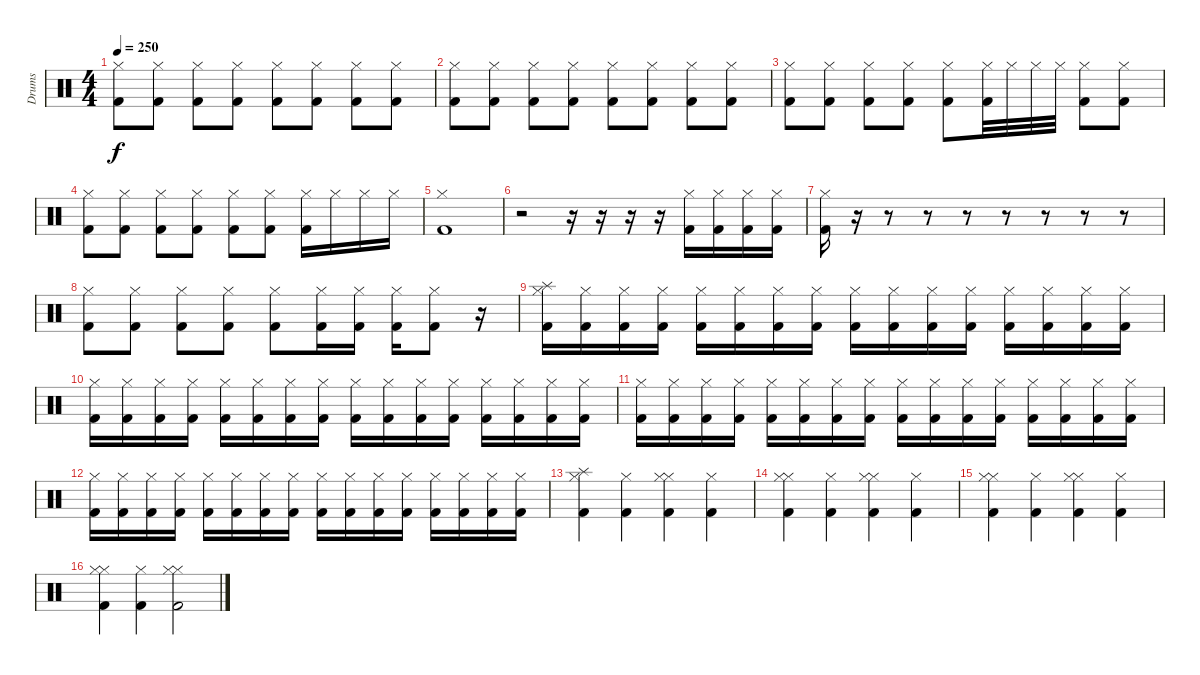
\track ("Drums" "Drums") {instrument percussion}
\staff {score}
\articulation defaults
\ts (4 4)
\tempo 250
\clef neutral
\ks c
("Kick (hit) 2" "Hi-Hat (closed)").8{dy f} ("Kick (hit) 2" "Hi-Hat (closed)").8 ("Kick (hit) 2" "Hi-Hat (closed)").8 ("Kick (hit) 2" "Hi-Hat (closed)").8 ("Kick (hit) 2" "Hi-Hat (closed)").8 ("Kick (hit) 2" "Hi-Hat (closed)").8 ("Kick (hit) 2" "Hi-Hat (closed)").8 ("Kick (hit) 2" "Hi-Hat (closed)").8 |
("Kick (hit) 2" "Hi-Hat (closed)").8 ("Kick (hit) 2" "Hi-Hat (closed)").8 ("Kick (hit) 2" "Hi-Hat (closed)").8 ("Kick (hit) 2" "Hi-Hat (closed)").8 ("Kick (hit) 2" "Hi-Hat (closed)").8 ("Kick (hit) 2" "Hi-Hat (closed)").8 ("Kick (hit) 2" "Hi-Hat (closed)").8 ("Kick (hit) 2" "Hi-Hat (closed)").8 |
("Kick (hit) 2" "Hi-Hat (closed)").8 ("Kick (hit) 2" "Hi-Hat (closed)").8 ("Kick (hit) 2" "Hi-Hat (closed)").8 ("Kick (hit) 2" "Hi-Hat (closed)").8 ("Kick (hit) 2" "Hi-Hat (closed)").8 ("Kick (hit) 2" "Hi-Hat (closed)").32 "Hi-Hat (closed)".32 "Hi-Hat (closed)".32 "Hi-Hat (closed)".32 ("Kick (hit) 2" "Hi-Hat (closed)").8 ("Kick (hit) 2" "Hi-Hat (closed)").8 |
("Kick (hit) 2" "Hi-Hat (closed)").8 ("Kick (hit) 2" "Hi-Hat (closed)").8 ("Kick (hit) 2" "Hi-Hat (closed)").8 ("Kick (hit) 2" "Hi-Hat (closed)").8 ("Kick (hit) 2" "Hi-Hat (closed)").8 ("Kick (hit) 2" "Hi-Hat (closed)").8 ("Kick (hit) 2" "Hi-Hat (closed)").16 "Hi-Hat (closed)".16 "Hi-Hat (closed)".16 "Hi-Hat (closed)".16 |
("Kick (hit) 2" "Hi-Hat (closed)").1 |
r.2 r.16 r.16 r.16 r.16 ("Kick (hit) 2" "Hi-Hat (closed)").16 ("Kick (hit) 2" "Hi-Hat (closed)").16 ("Kick (hit) 2" "Hi-Hat (closed)").16 ("Kick (hit) 2" "Hi-Hat (closed)").16 |
("Kick (hit) 2" "Hi-Hat (closed)").16 r.16 r.8 r.8 r.8 r.8 r.8 r.8 r.8 |
("Kick (hit) 2" "Hi-Hat (closed)").8 ("Kick (hit) 2" "Hi-Hat (closed)").8 ("Kick (hit) 2" "Hi-Hat (closed)").8 ("Kick (hit) 2" "Hi-Hat (closed)").8 ("Kick (hit) 2" "Hi-Hat (closed)").8 ("Kick (hit) 2" "Hi-Hat (closed)").16 ("Kick (hit) 2" "Hi-Hat (closed)").16 ("Kick (hit) 2" "Hi-Hat (closed)").16 ("Kick (hit) 2" "Hi-Hat (closed)").8 r.16 |
("Splash (hit)" "Kick (hit) 2" "Hi-Hat (closed)").16 ("Kick (hit) 2" "Hi-Hat (closed)").16 ("Kick (hit) 2" "Hi-Hat (closed)").16 ("Kick (hit) 2" "Hi-Hat (closed)").16 ("Kick (hit) 2" "Hi-Hat (closed)").16 ("Kick (hit) 2" "Hi-Hat (closed)").16 ("Kick (hit) 2" "Hi-Hat (closed)").16 ("Kick (hit) 2" "Hi-Hat (closed)").16 ("Kick (hit) 2" "Hi-Hat (closed)").16 ("Kick (hit) 2" "Hi-Hat (closed)").16 ("Kick (hit) 2" "Hi-Hat (closed)").16 ("Kick (hit) 2" "Hi-Hat (closed)").16 ("Kick (hit) 2" "Hi-Hat (closed)").16 ("Kick (hit) 2" "Hi-Hat (closed)").16 ("Kick (hit) 2" "Hi-Hat (closed)").16 ("Kick (hit) 2" "Hi-Hat (closed)").16 |
("Kick (hit) 2" "Hi-Hat (closed)").16 ("Kick (hit) 2" "Hi-Hat (closed)").16 ("Kick (hit) 2" "Hi-Hat (closed)").16 ("Kick (hit) 2" "Hi-Hat (closed)").16 ("Kick (hit) 2" "Hi-Hat (closed)").16 ("Kick (hit) 2" "Hi-Hat (closed)").16 ("Kick (hit) 2" "Hi-Hat (closed)").16 ("Kick (hit) 2" "Hi-Hat (closed)").16 ("Kick (hit) 2" "Hi-Hat (closed)").16 ("Kick (hit) 2" "Hi-Hat (closed)").16 ("Kick (hit) 2" "Hi-Hat (closed)").16 ("Kick (hit) 2" "Hi-Hat (closed)").16 ("Kick (hit) 2" "Hi-Hat (closed)").16 ("Kick (hit) 2" "Hi-Hat (closed)").16 ("Kick (hit) 2" "Hi-Hat (closed)").16 ("Kick (hit) 2" "Hi-Hat (closed)").16 |
("Kick (hit) 2" "Hi-Hat (closed)").16 ("Kick (hit) 2" "Hi-Hat (closed)").16 ("Kick (hit) 2" "Hi-Hat (closed)").16 ("Kick (hit) 2" "Hi-Hat (closed)").16 ("Kick (hit) 2" "Hi-Hat (closed)").16 ("Kick (hit) 2" "Hi-Hat (closed)").16 ("Kick (hit) 2" "Hi-Hat (closed)").16 ("Kick (hit) 2" "Hi-Hat (closed)").16 ("Kick (hit) 2" "Hi-Hat (closed)").16 ("Kick (hit) 2" "Hi-Hat (closed)").16 ("Kick (hit) 2" "Hi-Hat (closed)").16 ("Kick (hit) 2" "Hi-Hat (closed)").16 ("Kick (hit) 2" "Hi-Hat (closed)").16 ("Kick (hit) 2" "Hi-Hat (closed)").16 ("Kick (hit) 2" "Hi-Hat (closed)").16 ("Kick (hit) 2" "Hi-Hat (closed)").16 |
("Kick (hit) 2" "Hi-Hat (closed)").16 ("Kick (hit) 2" "Hi-Hat (closed)").16 ("Kick (hit) 2" "Hi-Hat (closed)").16 ("Kick (hit) 2" "Hi-Hat (closed)").16 ("Kick (hit) 2" "Hi-Hat (closed)").16 ("Kick (hit) 2" "Hi-Hat (closed)").16 ("Kick (hit) 2" "Hi-Hat (closed)").16 ("Kick (hit) 2" "Hi-Hat (closed)").16 ("Kick (hit) 2" "Hi-Hat (closed)").16 ("Kick (hit) 2" "Hi-Hat (closed)").16 ("Kick (hit) 2" "Hi-Hat (closed)").16 ("Kick (hit) 2" "Hi-Hat (closed)").16 ("Kick (hit) 2" "Hi-Hat (closed)").16 ("Kick (hit) 2" "Hi-Hat (closed)").16 ("Kick (hit) 2" "Hi-Hat (closed)").16 ("Kick (hit) 2" "Hi-Hat (closed)").16 |
("Splash (hit)" "Kick (hit) 2" "Hi-Hat (closed)").4 ("Kick (hit) 2" "Hi-Hat (closed)").4 ("Hi-Hat (closed)" "Kick (hit) 2" "Hi-Hat (closed)").4 ("Kick (hit) 2" "Hi-Hat (closed)").4 |
("Hi-Hat (closed)" "Kick (hit) 2" "Hi-Hat (closed)").4 ("Kick (hit) 2" "Hi-Hat (closed)").4 ("Hi-Hat (closed)" "Kick (hit) 2" "Hi-Hat (closed)").4 ("Kick (hit) 2" "Hi-Hat (closed)").4 |
("Hi-Hat (closed)" "Kick (hit) 2" "Hi-Hat (closed)").4 ("Kick (hit) 2" "Hi-Hat (closed)").4 ("Hi-Hat (closed)" "Kick (hit) 2" "Hi-Hat (closed)").4 ("Kick (hit) 2" "Hi-Hat (closed)").4 |
("Hi-Hat (closed)" "Kick (hit) 2" "Hi-Hat (closed)").4 ("Kick (hit) 2" "Hi-Hat (closed)").4 ("Hi-Hat (closed)" "Kick (hit) 2" "Hi-Hat (closed)").2
